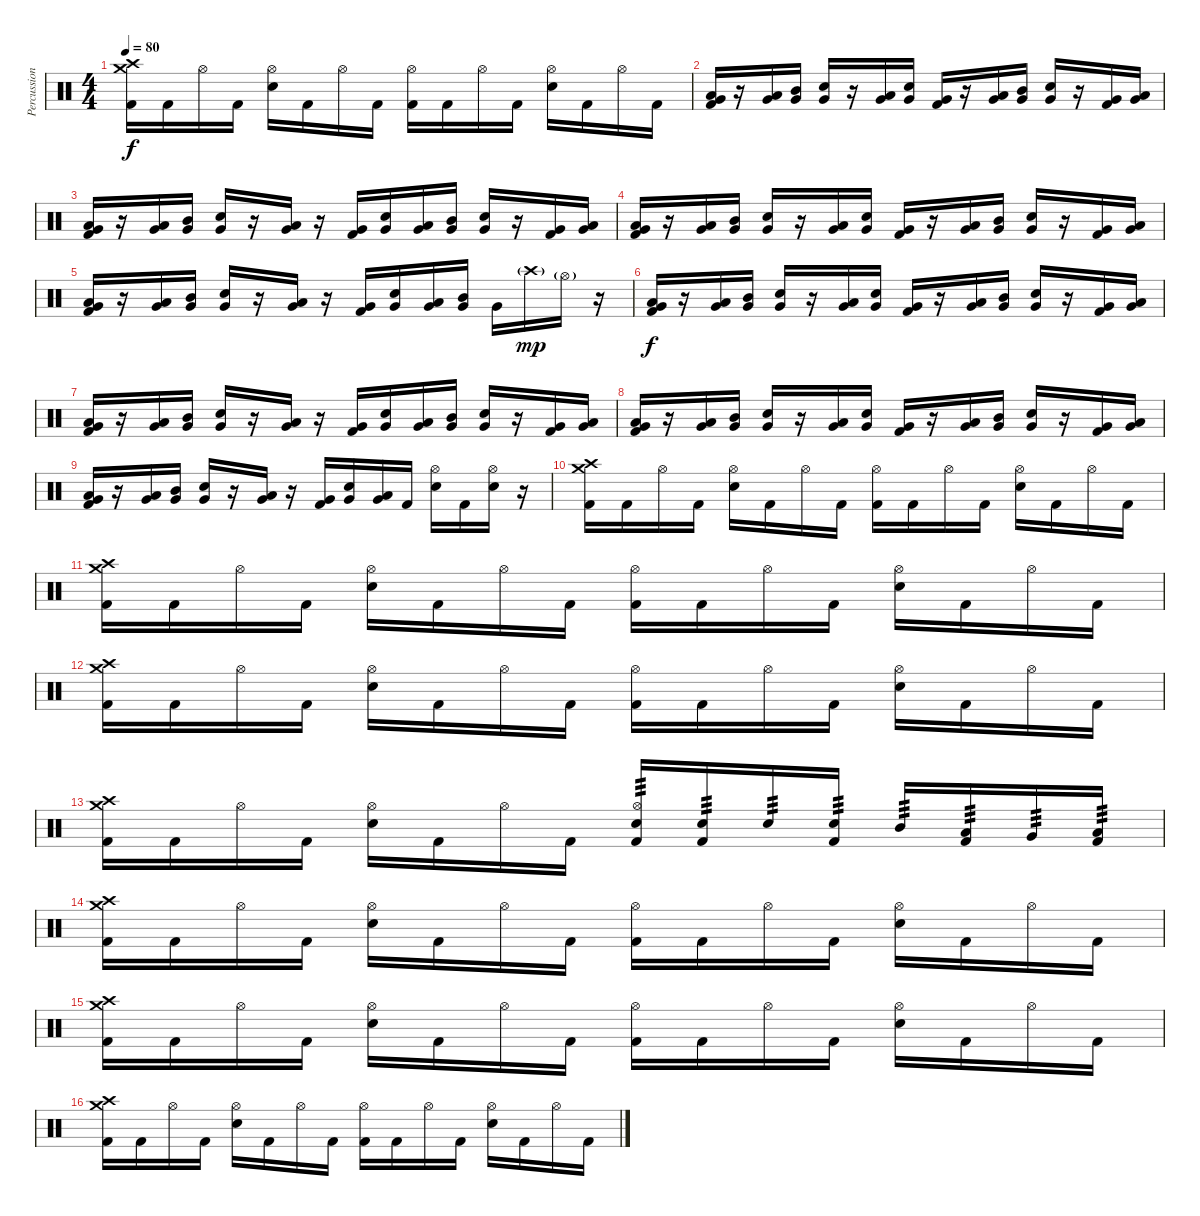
\track ("Percussion" "Percussion") {instrument percussion}
\staff {score}
\articulation defaults
\ts (4 4)
\tempo 80
\clef neutral
\ks c
("Crash medium (hit)" "Crash high (hit)" "Kick (hit) 2").16{dy f} "Kick (hit) 2".16 "Hi-Hat (open)".16 "Kick (hit) 2".16 ("Hi-Hat (open)" "Electric Snare (hit)").16 "Kick (hit) 2".16 "Hi-Hat (open)".16 "Kick (hit) 2".16 ("Hi-Hat (open)" "Kick (hit) 2").16 "Kick (hit) 2".16 "Hi-Hat (open)".16 "Kick (hit) 2".16 ("Hi-Hat (open)" "Electric Snare (hit)").16 "Kick (hit) 2".16 "Hi-Hat (open)".16 "Kick (hit) 2".16 |
("Low Floor Tom (hit)" "Very Low Tom (hit)" "Kick (hit) 2").16 r.16 ("Low Tom (hit)" "Very Low Tom (hit)").16 ("Mid Tom (hit)" "Very Low Tom (hit)").16 ("Electric Snare (hit)" "Very Low Tom (hit)").16 r.16 ("Low Floor Tom (hit)" "Very Low Tom (hit)").16 ("Electric Snare (hit)" "Very Low Tom (hit)").16 ("Very Low Tom (hit)" "Kick (hit) 2").16 r.16 ("Low Tom (hit)" "Very Low Tom (hit)").16 ("Mid Tom (hit)" "Very Low Tom (hit)").16 ("Electric Snare (hit)" "Very Low Tom (hit)").16 r.16 ("Very Low Tom (hit)" "Kick (hit) 2").16 ("Low Floor Tom (hit)" "Very Low Tom (hit)").16 |
("Low Floor Tom (hit)" "Very Low Tom (hit)" "Kick (hit) 2").16 r.16 ("Low Tom (hit)" "Very Low Tom (hit)").16 ("Mid Tom (hit)" "Very Low Tom (hit)").16 ("Electric Snare (hit)" "Very Low Tom (hit)").16 r.16 ("Low Floor Tom (hit)" "Very Low Tom (hit)").16 r.16 ("Very Low Tom (hit)" "Kick (hit) 2").16 ("Electric Snare (hit)" "Very Low Tom (hit)").16 ("Low Tom (hit)" "Very Low Tom (hit)").16 ("Mid Tom (hit)" "Very Low Tom (hit)").16 ("Electric Snare (hit)" "Very Low Tom (hit)").16 r.16 ("Very Low Tom (hit)" "Kick (hit) 2").16 ("Low Floor Tom (hit)" "Very Low Tom (hit)").16 |
("Low Floor Tom (hit)" "Very Low Tom (hit)" "Kick (hit) 2").16 r.16 ("Low Tom (hit)" "Very Low Tom (hit)").16 ("Mid Tom (hit)" "Very Low Tom (hit)").16 ("Electric Snare (hit)" "Very Low Tom (hit)").16 r.16 ("Low Floor Tom (hit)" "Very Low Tom (hit)").16 ("Electric Snare (hit)" "Very Low Tom (hit)").16 ("Very Low Tom (hit)" "Kick (hit) 2").16 r.16 ("Low Tom (hit)" "Very Low Tom (hit)").16 ("Mid Tom (hit)" "Very Low Tom (hit)").16 ("Electric Snare (hit)" "Very Low Tom (hit)").16 r.16 ("Very Low Tom (hit)" "Kick (hit) 2").16 ("Low Floor Tom (hit)" "Very Low Tom (hit)").16 |
("Low Floor Tom (hit)" "Very Low Tom (hit)" "Kick (hit) 2").16 r.16 ("Low Tom (hit)" "Very Low Tom (hit)").16 ("Mid Tom (hit)" "Very Low Tom (hit)").16 ("Electric Snare (hit)" "Very Low Tom (hit)").16 r.16 ("Low Floor Tom (hit)" "Very Low Tom (hit)").16 r.16 ("Very Low Tom (hit)" "Kick (hit) 2").16 ("Electric Snare (hit)" "Very Low Tom (hit)").16 ("Low Tom (hit)" "Very Low Tom (hit)").16 ("Mid Tom (hit)" "Very Low Tom (hit)").16 "Very Low Tom (hit)".16 "Crash high (hit)"{g}.16{dy mp} "Hi-Hat (open)"{g}.16 r.16 |
("Low Floor Tom (hit)" "Very Low Tom (hit)" "Kick (hit) 2").16{dy f} r.16 ("Low Tom (hit)" "Very Low Tom (hit)").16 ("Mid Tom (hit)" "Very Low Tom (hit)").16 ("Electric Snare (hit)" "Very Low Tom (hit)").16 r.16 ("Low Floor Tom (hit)" "Very Low Tom (hit)").16 ("Electric Snare (hit)" "Very Low Tom (hit)").16 ("Very Low Tom (hit)" "Kick (hit) 2").16 r.16 ("Low Tom (hit)" "Very Low Tom (hit)").16 ("Mid Tom (hit)" "Very Low Tom (hit)").16 ("Electric Snare (hit)" "Very Low Tom (hit)").16 r.16 ("Very Low Tom (hit)" "Kick (hit) 2").16 ("Low Floor Tom (hit)" "Very Low Tom (hit)").16 |
("Low Floor Tom (hit)" "Very Low Tom (hit)" "Kick (hit) 2").16 r.16 ("Low Tom (hit)" "Very Low Tom (hit)").16 ("Mid Tom (hit)" "Very Low Tom (hit)").16 ("Electric Snare (hit)" "Very Low Tom (hit)").16 r.16 ("Low Floor Tom (hit)" "Very Low Tom (hit)").16 r.16 ("Very Low Tom (hit)" "Kick (hit) 2").16 ("Electric Snare (hit)" "Very Low Tom (hit)").16 ("Low Tom (hit)" "Very Low Tom (hit)").16 ("Mid Tom (hit)" "Very Low Tom (hit)").16 ("Electric Snare (hit)" "Very Low Tom (hit)").16 r.16 ("Very Low Tom (hit)" "Kick (hit) 2").16 ("Low Floor Tom (hit)" "Very Low Tom (hit)").16 |
("Low Floor Tom (hit)" "Very Low Tom (hit)" "Kick (hit) 2").16 r.16 ("Low Tom (hit)" "Very Low Tom (hit)").16 ("Mid Tom (hit)" "Very Low Tom (hit)").16 ("Electric Snare (hit)" "Very Low Tom (hit)").16 r.16 ("Low Floor Tom (hit)" "Very Low Tom (hit)").16 ("Electric Snare (hit)" "Very Low Tom (hit)").16 ("Very Low Tom (hit)" "Kick (hit) 2").16 r.16 ("Low Tom (hit)" "Very Low Tom (hit)").16 ("Mid Tom (hit)" "Very Low Tom (hit)").16 ("Electric Snare (hit)" "Very Low Tom (hit)").16 r.16 ("Very Low Tom (hit)" "Kick (hit) 2").16 ("Low Floor Tom (hit)" "Very Low Tom (hit)").16 |
("Low Floor Tom (hit)" "Very Low Tom (hit)" "Kick (hit) 2").16 r.16 ("Low Tom (hit)" "Very Low Tom (hit)").16 ("Mid Tom (hit)" "Very Low Tom (hit)").16 ("Electric Snare (hit)" "Very Low Tom (hit)").16 r.16 ("Low Floor Tom (hit)" "Very Low Tom (hit)").16 r.16 ("Very Low Tom (hit)" "Kick (hit) 2").16 ("Electric Snare (hit)" "Very Low Tom (hit)").16 ("Low Floor Tom (hit)" "Very Low Tom (hit)").16 "Kick (hit) 2".16 ("Hi-Hat (open)" "Electric Snare (hit)").16 "Kick (hit) 2".16 ("Hi-Hat (open)" "Electric Snare (hit)").16 r.16 |
("Crash medium (hit)" "Crash high (hit)" "Kick (hit) 2").16 "Kick (hit) 2".16 "Hi-Hat (open)".16 "Kick (hit) 2".16 ("Hi-Hat (open)" "Electric Snare (hit)").16 "Kick (hit) 2".16 "Hi-Hat (open)".16 "Kick (hit) 2".16 ("Hi-Hat (open)" "Kick (hit) 2").16 "Kick (hit) 2".16 "Hi-Hat (open)".16 "Kick (hit) 2".16 ("Hi-Hat (open)" "Electric Snare (hit)").16 "Kick (hit) 2".16 "Hi-Hat (open)".16 "Kick (hit) 2".16 |
("Crash medium (hit)" "Crash high (hit)" "Kick (hit) 2").16 "Kick (hit) 2".16 "Hi-Hat (open)".16 "Kick (hit) 2".16 ("Hi-Hat (open)" "Electric Snare (hit)").16 "Kick (hit) 2".16 "Hi-Hat (open)".16 "Kick (hit) 2".16 ("Hi-Hat (open)" "Kick (hit) 2").16 "Kick (hit) 2".16 "Hi-Hat (open)".16 "Kick (hit) 2".16 ("Hi-Hat (open)" "Electric Snare (hit)").16 "Kick (hit) 2".16 "Hi-Hat (open)".16 "Kick (hit) 2".16 |
("Crash medium (hit)" "Crash high (hit)" "Kick (hit) 2").16 "Kick (hit) 2".16 "Hi-Hat (open)".16 "Kick (hit) 2".16 ("Hi-Hat (open)" "Electric Snare (hit)").16 "Kick (hit) 2".16 "Hi-Hat (open)".16 "Kick (hit) 2".16 ("Hi-Hat (open)" "Kick (hit) 2").16 "Kick (hit) 2".16 "Hi-Hat (open)".16 "Kick (hit) 2".16 ("Hi-Hat (open)" "Electric Snare (hit)").16 "Kick (hit) 2".16 "Hi-Hat (open)".16 "Kick (hit) 2".16 |
("Crash medium (hit)" "Crash high (hit)" "Kick (hit) 2").16 "Kick (hit) 2".16 "Hi-Hat (open)".16 "Kick (hit) 2".16 ("Hi-Hat (open)" "Electric Snare (hit)").16 "Kick (hit) 2".16 "Hi-Hat (open)".16 "Kick (hit) 2".16 ("Hi-Hat (open)" "Electric Snare (hit)" "Kick (hit) 2").16{tp 3} ("Electric Snare (hit)" "Kick (hit) 2").16{tp 3} "Electric Snare (hit)".16{tp 3} ("Electric Snare (hit)" "Kick (hit) 2").16{tp 3} "Mid Tom (hit)".16{tp 3} ("Low Tom (hit)" "Kick (hit) 2").16{tp 3} "Very Low Tom (hit)".16{tp 3} ("Low Floor Tom (hit)" "Kick (hit) 2").16{tp 3} |
("Crash medium (hit)" "Crash high (hit)" "Kick (hit) 2").16 "Kick (hit) 2".16 "Hi-Hat (open)".16 "Kick (hit) 2".16 ("Hi-Hat (open)" "Electric Snare (hit)").16 "Kick (hit) 2".16 "Hi-Hat (open)".16 "Kick (hit) 2".16 ("Hi-Hat (open)" "Kick (hit) 2").16 "Kick (hit) 2".16 "Hi-Hat (open)".16 "Kick (hit) 2".16 ("Hi-Hat (open)" "Electric Snare (hit)").16 "Kick (hit) 2".16 "Hi-Hat (open)".16 "Kick (hit) 2".16 |
("Crash medium (hit)" "Crash high (hit)" "Kick (hit) 2").16 "Kick (hit) 2".16 "Hi-Hat (open)".16 "Kick (hit) 2".16 ("Hi-Hat (open)" "Electric Snare (hit)").16 "Kick (hit) 2".16 "Hi-Hat (open)".16 "Kick (hit) 2".16 ("Hi-Hat (open)" "Kick (hit) 2").16 "Kick (hit) 2".16 "Hi-Hat (open)".16 "Kick (hit) 2".16 ("Hi-Hat (open)" "Electric Snare (hit)").16 "Kick (hit) 2".16 "Hi-Hat (open)".16 "Kick (hit) 2".16 |
("Crash medium (hit)" "Crash high (hit)" "Kick (hit) 2").16 "Kick (hit) 2".16 "Hi-Hat (open)".16 "Kick (hit) 2".16 ("Hi-Hat (open)" "Electric Snare (hit)").16 "Kick (hit) 2".16 "Hi-Hat (open)".16 "Kick (hit) 2".16 ("Hi-Hat (open)" "Kick (hit) 2").16 "Kick (hit) 2".16 "Hi-Hat (open)".16 "Kick (hit) 2".16 ("Hi-Hat (open)" "Electric Snare (hit)").16 "Kick (hit) 2".16 "Hi-Hat (open)".16 "Kick (hit) 2".16
